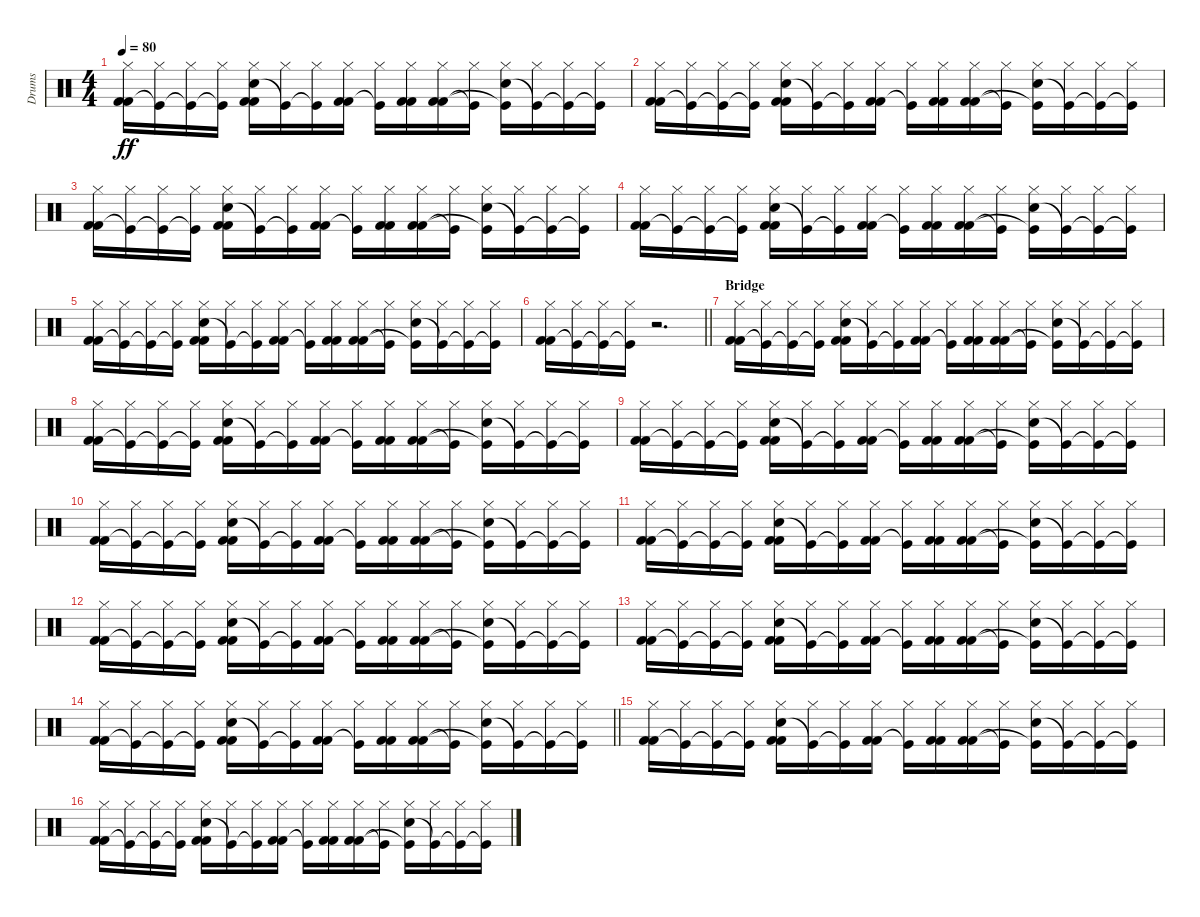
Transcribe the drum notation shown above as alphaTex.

\track ("Drums" "Drums") {instrument percussion}
\staff {score}
\articulation defaults
\ts (4 4)
\tempo 80
\clef neutral
\ks c
("Hi-Hat (closed)" "Kick (hit) 2" "Kick (hit) 2").16{dy ff} ("Hi-Hat (closed)" "Kick (hit)"{t}).16 ("Hi-Hat (closed)" "Kick (hit)"{t}).16 ("Hi-Hat (closed)" "Kick (hit)"{t}).16 ("Hi-Hat (closed)" "Electric Snare (hit)" "Kick (hit) 2" "Kick (hit) 2").16 ("Hi-Hat (closed)" "Kick (hit)"{t}).16 ("Hi-Hat (closed)" "Kick (hit)"{t}).16 ("Hi-Hat (closed)" "Kick (hit) 2" "Kick (hit) 2").16 ("Hi-Hat (closed)" "Kick (hit)"{t}).16 ("Hi-Hat (closed)" "Kick (hit) 2" "Kick (hit) 2").16 ("Hi-Hat (closed)" "Kick (hit) 2" "Kick (hit) 2").16 ("Hi-Hat (closed)" "Kick (hit)"{t}).16 ("Hi-Hat (closed)" "Electric Snare (hit)" "Kick (hit)"{t}).16 ("Hi-Hat (closed)" "Kick (hit)"{t}).16 ("Hi-Hat (closed)" "Kick (hit)"{t}).16 ("Hi-Hat (closed)" "Kick (hit)"{t}).16 |
("Hi-Hat (closed)" "Kick (hit) 2" "Kick (hit) 2").16 ("Hi-Hat (closed)" "Kick (hit)"{t}).16 ("Hi-Hat (closed)" "Kick (hit)"{t}).16 ("Hi-Hat (closed)" "Kick (hit)"{t}).16 ("Hi-Hat (closed)" "Electric Snare (hit)" "Kick (hit) 2" "Kick (hit) 2").16 ("Hi-Hat (closed)" "Kick (hit)"{t}).16 ("Hi-Hat (closed)" "Kick (hit)"{t}).16 ("Hi-Hat (closed)" "Kick (hit) 2" "Kick (hit) 2").16 ("Hi-Hat (closed)" "Kick (hit)"{t}).16 ("Hi-Hat (closed)" "Kick (hit) 2" "Kick (hit) 2").16 ("Hi-Hat (closed)" "Kick (hit) 2" "Kick (hit) 2").16 ("Hi-Hat (closed)" "Kick (hit)"{t}).16 ("Hi-Hat (closed)" "Electric Snare (hit)" "Kick (hit)"{t}).16 ("Hi-Hat (closed)" "Kick (hit)"{t}).16 ("Hi-Hat (closed)" "Kick (hit)"{t}).16 ("Hi-Hat (closed)" "Kick (hit)"{t}).16 |
("Hi-Hat (closed)" "Kick (hit) 2" "Kick (hit) 2").16 ("Hi-Hat (closed)" "Kick (hit)"{t}).16 ("Hi-Hat (closed)" "Kick (hit)"{t}).16 ("Hi-Hat (closed)" "Kick (hit)"{t}).16 ("Hi-Hat (closed)" "Electric Snare (hit)" "Kick (hit) 2" "Kick (hit) 2").16 ("Hi-Hat (closed)" "Kick (hit)"{t}).16 ("Hi-Hat (closed)" "Kick (hit)"{t}).16 ("Hi-Hat (closed)" "Kick (hit) 2" "Kick (hit) 2").16 ("Hi-Hat (closed)" "Kick (hit)"{t}).16 ("Hi-Hat (closed)" "Kick (hit) 2" "Kick (hit) 2").16 ("Hi-Hat (closed)" "Kick (hit) 2" "Kick (hit) 2").16 ("Hi-Hat (closed)" "Kick (hit)"{t}).16 ("Hi-Hat (closed)" "Electric Snare (hit)" "Kick (hit)"{t}).16 ("Hi-Hat (closed)" "Kick (hit)"{t}).16 ("Hi-Hat (closed)" "Kick (hit)"{t}).16 ("Hi-Hat (closed)" "Kick (hit)"{t}).16 |
("Hi-Hat (closed)" "Kick (hit) 2" "Kick (hit) 2").16 ("Hi-Hat (closed)" "Kick (hit)"{t}).16 ("Hi-Hat (closed)" "Kick (hit)"{t}).16 ("Hi-Hat (closed)" "Kick (hit)"{t}).16 ("Hi-Hat (closed)" "Electric Snare (hit)" "Kick (hit) 2" "Kick (hit) 2").16 ("Hi-Hat (closed)" "Kick (hit)"{t}).16 ("Hi-Hat (closed)" "Kick (hit)"{t}).16 ("Hi-Hat (closed)" "Kick (hit) 2" "Kick (hit) 2").16 ("Hi-Hat (closed)" "Kick (hit)"{t}).16 ("Hi-Hat (closed)" "Kick (hit) 2" "Kick (hit) 2").16 ("Hi-Hat (closed)" "Kick (hit) 2" "Kick (hit) 2").16 ("Hi-Hat (closed)" "Kick (hit)"{t}).16 ("Hi-Hat (closed)" "Electric Snare (hit)" "Kick (hit)"{t}).16 ("Hi-Hat (closed)" "Kick (hit)"{t}).16 ("Hi-Hat (closed)" "Kick (hit)"{t}).16 ("Hi-Hat (closed)" "Kick (hit)"{t}).16 |
("Hi-Hat (closed)" "Kick (hit) 2" "Kick (hit) 2").16 ("Hi-Hat (closed)" "Kick (hit)"{t}).16 ("Hi-Hat (closed)" "Kick (hit)"{t}).16 ("Hi-Hat (closed)" "Kick (hit)"{t}).16 ("Hi-Hat (closed)" "Electric Snare (hit)" "Kick (hit) 2" "Kick (hit) 2").16 ("Hi-Hat (closed)" "Kick (hit)"{t}).16 ("Hi-Hat (closed)" "Kick (hit)"{t}).16 ("Hi-Hat (closed)" "Kick (hit) 2" "Kick (hit) 2").16 ("Hi-Hat (closed)" "Kick (hit)"{t}).16 ("Hi-Hat (closed)" "Kick (hit) 2" "Kick (hit) 2").16 ("Hi-Hat (closed)" "Kick (hit) 2" "Kick (hit) 2").16 ("Hi-Hat (closed)" "Kick (hit)"{t}).16 ("Hi-Hat (closed)" "Electric Snare (hit)" "Kick (hit)"{t}).16 ("Hi-Hat (closed)" "Kick (hit)"{t}).16 ("Hi-Hat (closed)" "Kick (hit)"{t}).16 ("Hi-Hat (closed)" "Kick (hit)"{t}).16 |
\barLineRight lightlight
("Hi-Hat (closed)" "Kick (hit) 2" "Kick (hit) 2").16 ("Hi-Hat (closed)" "Kick (hit)"{t}).16 ("Hi-Hat (closed)" "Kick (hit)"{t}).16 ("Hi-Hat (closed)" "Kick (hit)"{t}).16 r.2{d} |
\section ("" "Bridge")
("Hi-Hat (closed)" "Kick (hit) 2" "Kick (hit) 2").16 ("Hi-Hat (closed)" "Kick (hit)"{t}).16 ("Hi-Hat (closed)" "Kick (hit)"{t}).16 ("Hi-Hat (closed)" "Kick (hit)"{t}).16 ("Hi-Hat (closed)" "Electric Snare (hit)" "Kick (hit) 2" "Kick (hit) 2").16 ("Hi-Hat (closed)" "Kick (hit)"{t}).16 ("Hi-Hat (closed)" "Kick (hit)"{t}).16 ("Hi-Hat (closed)" "Kick (hit) 2" "Kick (hit) 2").16 ("Hi-Hat (closed)" "Kick (hit)"{t}).16 ("Hi-Hat (closed)" "Kick (hit) 2" "Kick (hit) 2").16 ("Hi-Hat (closed)" "Kick (hit) 2" "Kick (hit) 2").16 ("Hi-Hat (closed)" "Kick (hit)"{t}).16 ("Hi-Hat (closed)" "Electric Snare (hit)" "Kick (hit)"{t}).16 ("Hi-Hat (closed)" "Kick (hit)"{t}).16 ("Hi-Hat (closed)" "Kick (hit)"{t}).16 ("Hi-Hat (closed)" "Kick (hit)"{t}).16 |
("Hi-Hat (closed)" "Kick (hit) 2" "Kick (hit) 2").16 ("Hi-Hat (closed)" "Kick (hit)"{t}).16 ("Hi-Hat (closed)" "Kick (hit)"{t}).16 ("Hi-Hat (closed)" "Kick (hit)"{t}).16 ("Hi-Hat (closed)" "Electric Snare (hit)" "Kick (hit) 2" "Kick (hit) 2").16 ("Hi-Hat (closed)" "Kick (hit)"{t}).16 ("Hi-Hat (closed)" "Kick (hit)"{t}).16 ("Hi-Hat (closed)" "Kick (hit) 2" "Kick (hit) 2").16 ("Hi-Hat (closed)" "Kick (hit)"{t}).16 ("Hi-Hat (closed)" "Kick (hit) 2" "Kick (hit) 2").16 ("Hi-Hat (closed)" "Kick (hit) 2" "Kick (hit) 2").16 ("Hi-Hat (closed)" "Kick (hit)"{t}).16 ("Hi-Hat (closed)" "Electric Snare (hit)" "Kick (hit)"{t}).16 ("Hi-Hat (closed)" "Kick (hit)"{t}).16 ("Hi-Hat (closed)" "Kick (hit)"{t}).16 ("Hi-Hat (closed)" "Kick (hit)"{t}).16 |
("Hi-Hat (closed)" "Kick (hit) 2" "Kick (hit) 2").16 ("Hi-Hat (closed)" "Kick (hit)"{t}).16 ("Hi-Hat (closed)" "Kick (hit)"{t}).16 ("Hi-Hat (closed)" "Kick (hit)"{t}).16 ("Hi-Hat (closed)" "Electric Snare (hit)" "Kick (hit) 2" "Kick (hit) 2").16 ("Hi-Hat (closed)" "Kick (hit)"{t}).16 ("Hi-Hat (closed)" "Kick (hit)"{t}).16 ("Hi-Hat (closed)" "Kick (hit) 2" "Kick (hit) 2").16 ("Hi-Hat (closed)" "Kick (hit)"{t}).16 ("Hi-Hat (closed)" "Kick (hit) 2" "Kick (hit) 2").16 ("Hi-Hat (closed)" "Kick (hit) 2" "Kick (hit) 2").16 ("Hi-Hat (closed)" "Kick (hit)"{t}).16 ("Hi-Hat (closed)" "Electric Snare (hit)" "Kick (hit)"{t}).16 ("Hi-Hat (closed)" "Kick (hit)"{t}).16 ("Hi-Hat (closed)" "Kick (hit)"{t}).16 ("Hi-Hat (closed)" "Kick (hit)"{t}).16 |
("Hi-Hat (closed)" "Kick (hit) 2" "Kick (hit) 2").16 ("Hi-Hat (closed)" "Kick (hit)"{t}).16 ("Hi-Hat (closed)" "Kick (hit)"{t}).16 ("Hi-Hat (closed)" "Kick (hit)"{t}).16 ("Hi-Hat (closed)" "Electric Snare (hit)" "Kick (hit) 2" "Kick (hit) 2").16 ("Hi-Hat (closed)" "Kick (hit)"{t}).16 ("Hi-Hat (closed)" "Kick (hit)"{t}).16 ("Hi-Hat (closed)" "Kick (hit) 2" "Kick (hit) 2").16 ("Hi-Hat (closed)" "Kick (hit)"{t}).16 ("Hi-Hat (closed)" "Kick (hit) 2" "Kick (hit) 2").16 ("Hi-Hat (closed)" "Kick (hit) 2" "Kick (hit) 2").16 ("Hi-Hat (closed)" "Kick (hit)"{t}).16 ("Hi-Hat (closed)" "Electric Snare (hit)" "Kick (hit)"{t}).16 ("Hi-Hat (closed)" "Kick (hit)"{t}).16 ("Hi-Hat (closed)" "Kick (hit)"{t}).16 ("Hi-Hat (closed)" "Kick (hit)"{t}).16 |
("Hi-Hat (closed)" "Kick (hit) 2" "Kick (hit) 2").16 ("Hi-Hat (closed)" "Kick (hit)"{t}).16 ("Hi-Hat (closed)" "Kick (hit)"{t}).16 ("Hi-Hat (closed)" "Kick (hit)"{t}).16 ("Hi-Hat (closed)" "Electric Snare (hit)" "Kick (hit) 2" "Kick (hit) 2").16 ("Hi-Hat (closed)" "Kick (hit)"{t}).16 ("Hi-Hat (closed)" "Kick (hit)"{t}).16 ("Hi-Hat (closed)" "Kick (hit) 2" "Kick (hit) 2").16 ("Hi-Hat (closed)" "Kick (hit)"{t}).16 ("Hi-Hat (closed)" "Kick (hit) 2" "Kick (hit) 2").16 ("Hi-Hat (closed)" "Kick (hit) 2" "Kick (hit) 2").16 ("Hi-Hat (closed)" "Kick (hit)"{t}).16 ("Hi-Hat (closed)" "Electric Snare (hit)" "Kick (hit)"{t}).16 ("Hi-Hat (closed)" "Kick (hit)"{t}).16 ("Hi-Hat (closed)" "Kick (hit)"{t}).16 ("Hi-Hat (closed)" "Kick (hit)"{t}).16 |
("Hi-Hat (closed)" "Kick (hit) 2" "Kick (hit) 2").16 ("Hi-Hat (closed)" "Kick (hit)"{t}).16 ("Hi-Hat (closed)" "Kick (hit)"{t}).16 ("Hi-Hat (closed)" "Kick (hit)"{t}).16 ("Hi-Hat (closed)" "Electric Snare (hit)" "Kick (hit) 2" "Kick (hit) 2").16 ("Hi-Hat (closed)" "Kick (hit)"{t}).16 ("Hi-Hat (closed)" "Kick (hit)"{t}).16 ("Hi-Hat (closed)" "Kick (hit) 2" "Kick (hit) 2").16 ("Hi-Hat (closed)" "Kick (hit)"{t}).16 ("Hi-Hat (closed)" "Kick (hit) 2" "Kick (hit) 2").16 ("Hi-Hat (closed)" "Kick (hit) 2" "Kick (hit) 2").16 ("Hi-Hat (closed)" "Kick (hit)"{t}).16 ("Hi-Hat (closed)" "Electric Snare (hit)" "Kick (hit)"{t}).16 ("Hi-Hat (closed)" "Kick (hit)"{t}).16 ("Hi-Hat (closed)" "Kick (hit)"{t}).16 ("Hi-Hat (closed)" "Kick (hit)"{t}).16 |
("Hi-Hat (closed)" "Kick (hit) 2" "Kick (hit) 2").16 ("Hi-Hat (closed)" "Kick (hit)"{t}).16 ("Hi-Hat (closed)" "Kick (hit)"{t}).16 ("Hi-Hat (closed)" "Kick (hit)"{t}).16 ("Hi-Hat (closed)" "Electric Snare (hit)" "Kick (hit) 2" "Kick (hit) 2").16 ("Hi-Hat (closed)" "Kick (hit)"{t}).16 ("Hi-Hat (closed)" "Kick (hit)"{t}).16 ("Hi-Hat (closed)" "Kick (hit) 2" "Kick (hit) 2").16 ("Hi-Hat (closed)" "Kick (hit)"{t}).16 ("Hi-Hat (closed)" "Kick (hit) 2" "Kick (hit) 2").16 ("Hi-Hat (closed)" "Kick (hit) 2" "Kick (hit) 2").16 ("Hi-Hat (closed)" "Kick (hit)"{t}).16 ("Hi-Hat (closed)" "Electric Snare (hit)" "Kick (hit)"{t}).16 ("Hi-Hat (closed)" "Kick (hit)"{t}).16 ("Hi-Hat (closed)" "Kick (hit)"{t}).16 ("Hi-Hat (closed)" "Kick (hit)"{t}).16 |
\barLineRight lightlight
("Hi-Hat (closed)" "Kick (hit) 2" "Kick (hit) 2").16 ("Hi-Hat (closed)" "Kick (hit)"{t}).16 ("Hi-Hat (closed)" "Kick (hit)"{t}).16 ("Hi-Hat (closed)" "Kick (hit)"{t}).16 ("Hi-Hat (closed)" "Electric Snare (hit)" "Kick (hit) 2" "Kick (hit) 2").16 ("Hi-Hat (closed)" "Kick (hit)"{t}).16 ("Hi-Hat (closed)" "Kick (hit)"{t}).16 ("Hi-Hat (closed)" "Kick (hit) 2" "Kick (hit) 2").16 ("Hi-Hat (closed)" "Kick (hit)"{t}).16 ("Hi-Hat (closed)" "Kick (hit) 2" "Kick (hit) 2").16 ("Hi-Hat (closed)" "Kick (hit) 2" "Kick (hit) 2").16 ("Hi-Hat (closed)" "Kick (hit)"{t}).16 ("Hi-Hat (closed)" "Electric Snare (hit)" "Kick (hit)"{t}).16 ("Hi-Hat (closed)" "Kick (hit)"{t}).16 ("Hi-Hat (closed)" "Kick (hit)"{t}).16 ("Hi-Hat (closed)" "Kick (hit)"{t}).16 |
("Hi-Hat (closed)" "Kick (hit) 2" "Kick (hit) 2").16 ("Hi-Hat (closed)" "Kick (hit)"{t}).16 ("Hi-Hat (closed)" "Kick (hit)"{t}).16 ("Hi-Hat (closed)" "Kick (hit)"{t}).16 ("Hi-Hat (closed)" "Electric Snare (hit)" "Kick (hit) 2" "Kick (hit) 2").16 ("Hi-Hat (closed)" "Kick (hit)"{t}).16 ("Hi-Hat (closed)" "Kick (hit)"{t}).16 ("Hi-Hat (closed)" "Kick (hit) 2" "Kick (hit) 2").16 ("Hi-Hat (closed)" "Kick (hit)"{t}).16 ("Hi-Hat (closed)" "Kick (hit) 2" "Kick (hit) 2").16 ("Hi-Hat (closed)" "Kick (hit) 2" "Kick (hit) 2").16 ("Hi-Hat (closed)" "Kick (hit)"{t}).16 ("Hi-Hat (closed)" "Electric Snare (hit)" "Kick (hit)"{t}).16 ("Hi-Hat (closed)" "Kick (hit)"{t}).16 ("Hi-Hat (closed)" "Kick (hit)"{t}).16 ("Hi-Hat (closed)" "Kick (hit)"{t}).16 |
("Hi-Hat (closed)" "Kick (hit) 2" "Kick (hit) 2").16 ("Hi-Hat (closed)" "Kick (hit)"{t}).16 ("Hi-Hat (closed)" "Kick (hit)"{t}).16 ("Hi-Hat (closed)" "Kick (hit)"{t}).16 ("Hi-Hat (closed)" "Electric Snare (hit)" "Kick (hit) 2" "Kick (hit) 2").16 ("Hi-Hat (closed)" "Kick (hit)"{t}).16 ("Hi-Hat (closed)" "Kick (hit)"{t}).16 ("Hi-Hat (closed)" "Kick (hit) 2" "Kick (hit) 2").16 ("Hi-Hat (closed)" "Kick (hit)"{t}).16 ("Hi-Hat (closed)" "Kick (hit) 2" "Kick (hit) 2").16 ("Hi-Hat (closed)" "Kick (hit) 2" "Kick (hit) 2").16 ("Hi-Hat (closed)" "Kick (hit)"{t}).16 ("Hi-Hat (closed)" "Electric Snare (hit)" "Kick (hit)"{t}).16 ("Hi-Hat (closed)" "Kick (hit)"{t}).16 ("Hi-Hat (closed)" "Kick (hit)"{t}).16 ("Hi-Hat (closed)" "Kick (hit)"{t}).16
